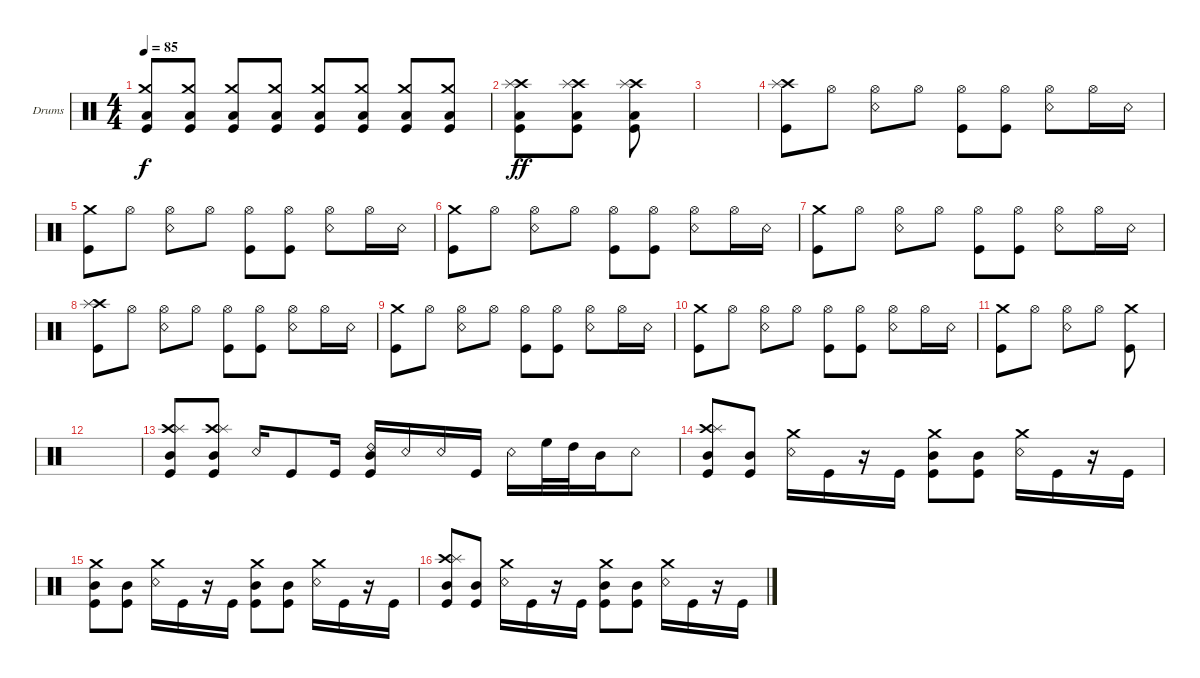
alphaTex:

\defaultSystemsLayout 4
\bracketExtendMode groupsimilarinstruments
\firstSystemTrackNameOrientation horizontal
\otherSystemsTrackNameOrientation horizontal
\track ("Drumkit" "Drums") {instrument percussion}
\staff {score}
\articulation defaults
\ts (4 4)
\tempo 85
\clef neutral
\scale
0.333333
\ks c
("Low Tom (hit)" "Crash medium (hit)" "Kick (hit)").8{dy f} ("Low Tom (hit)" "Crash medium (hit)" "Kick (hit)").8 ("Low Tom (hit)" "Crash medium (hit)" "Kick (hit)").8 ("Low Tom (hit)" "Crash medium (hit)" "Kick (hit)").8 ("Low Tom (hit)" "Crash medium (hit)" "Kick (hit)").8 ("Low Tom (hit)" "Crash medium (hit)" "Kick (hit)").8 ("Low Tom (hit)" "Crash medium (hit)" "Kick (hit)").8 ("Low Tom (hit)" "Crash medium (hit)" "Kick (hit)").8 |
\scale
0.333333 ("Low Tom (hit)" "Kick (hit)" "Crash high (hit)" "Splash (hit)").8{dy ff} ("Low Tom (hit)" "Kick (hit)" "Crash high (hit)" "Splash (hit)").8 ("Low Tom (hit)" "Kick (hit)" "Crash high (hit)" "Splash (hit)").8 |
\scale
0.333333 |
\scale
0.333333 ("Kick (hit)" "Crash high (hit)" "Splash (hit)").8 "Hi-Hat (open)".8 ("Snare (rim shot)" "Hi-Hat (open)").8 "Hi-Hat (open)".8 ("Hi-Hat (open)" "Kick (hit)").8 ("Hi-Hat (open)" "Kick (hit)").8 ("Hi-Hat (open)" "Snare (rim shot)").8 "Hi-Hat (open)".16 "Snare (rim shot)".16 |
\scale
0.333333 ("Kick (hit)" "Crash medium (hit)").8 "Hi-Hat (open)".8 ("Snare (rim shot)" "Hi-Hat (open)").8 "Hi-Hat (open)".8 ("Hi-Hat (open)" "Kick (hit)").8 ("Hi-Hat (open)" "Kick (hit)").8 ("Hi-Hat (open)" "Snare (rim shot)").8 "Hi-Hat (open)".16 "Snare (rim shot)".16 |
\scale
0.333333 ("Kick (hit)" "Crash medium (hit)").8 "Hi-Hat (open)".8 ("Snare (rim shot)" "Hi-Hat (open)").8 "Hi-Hat (open)".8 ("Hi-Hat (open)" "Kick (hit)").8 ("Hi-Hat (open)" "Kick (hit)").8 ("Hi-Hat (open)" "Snare (rim shot)").8 "Hi-Hat (open)".16 "Snare (rim shot)".16 |
\scale
0.333333 ("Kick (hit)" "Crash medium (hit)").8 "Hi-Hat (open)".8 ("Snare (rim shot)" "Hi-Hat (open)").8 "Hi-Hat (open)".8 ("Hi-Hat (open)" "Kick (hit)").8 ("Hi-Hat (open)" "Kick (hit)").8 ("Hi-Hat (open)" "Snare (rim shot)").8 "Hi-Hat (open)".16 "Snare (rim shot)".16 |
\scale
0.333333 ("Kick (hit)" "Crash high (hit)" "Splash (hit)").8 "Hi-Hat (open)".8 ("Snare (rim shot)" "Hi-Hat (open)").8 "Hi-Hat (open)".8 ("Hi-Hat (open)" "Kick (hit)").8 ("Hi-Hat (open)" "Kick (hit)").8 ("Hi-Hat (open)" "Snare (rim shot)").8 "Hi-Hat (open)".16 "Snare (rim shot)".16 |
\scale
0.333333 ("Kick (hit)" "Crash medium (hit)").8 "Hi-Hat (open)".8 ("Snare (rim shot)" "Hi-Hat (open)").8 "Hi-Hat (open)".8 ("Hi-Hat (open)" "Kick (hit)").8 ("Hi-Hat (open)" "Kick (hit)").8 ("Hi-Hat (open)" "Snare (rim shot)").8 "Hi-Hat (open)".16 "Snare (rim shot)".16 |
\scale
0.333333 ("Kick (hit)" "Crash medium (hit)").8 "Hi-Hat (open)".8 ("Snare (rim shot)" "Hi-Hat (open)").8 "Hi-Hat (open)".8 ("Hi-Hat (open)" "Kick (hit)").8 ("Hi-Hat (open)" "Kick (hit)").8 ("Hi-Hat (open)" "Snare (rim shot)").8 "Hi-Hat (open)".16 "Snare (rim shot)".16 |
\scale
0.333333 ("Kick (hit)" "Crash medium (hit)").8 "Hi-Hat (open)".8 ("Snare (rim shot)" "Hi-Hat (open)").8 "Hi-Hat (open)".8 ("Kick (hit)" "Crash medium (hit)").8 |
\scale
0.333333 |
\scale
0.333333 ("Crash high (hit)" "Splash (hit)" "Mid Tom (hit)" "Kick (hit)").8 ("Crash high (hit)" "Splash (hit)" "Mid Tom (hit)" "Kick (hit)").8 "Snare (rim shot)".16 "Kick (hit)".8 "Kick (hit)".16 ("Mid Tom (hit)" "Kick (hit)" "Ride (bell) 2").16 "Snare (rim shot)".16 "Snare (rim shot)".16 "Kick (hit)".16 "Snare (rim shot)".16 "High Floor Tom (hit)".32 "High Tom (hit)".32 "Mid Tom (hit)".16 "Snare (rim shot)".8 |
\scale
0.333333 ("Crash high (hit)" "Splash (hit)" "Mid Tom (hit)" "Kick (hit)").8 ("Mid Tom (hit)" "Kick (hit)").8 ("Snare (rim shot)" "Crash medium (hit)").16 "Kick (hit)".16 r.16 "Kick (hit)".16 ("Mid Tom (hit)" "Kick (hit)" "Crash medium (hit)").8 ("Mid Tom (hit)" "Kick (hit)").8 ("Snare (rim shot)" "Crash medium (hit)").16 "Kick (hit)".16 r.16 "Kick (hit)".16 |
\scale
0.333333 ("Mid Tom (hit)" "Kick (hit)" "Crash medium (hit)").8 ("Mid Tom (hit)" "Kick (hit)").8 ("Snare (rim shot)" "Crash medium (hit)").16 "Kick (hit)".16 r.16 "Kick (hit)".16 ("Mid Tom (hit)" "Kick (hit)" "Crash medium (hit)").8 ("Mid Tom (hit)" "Kick (hit)").8 ("Snare (rim shot)" "Crash medium (hit)").16 "Kick (hit)".16 r.16 "Kick (hit)".16 |
\scale
0.333333 ("Crash high (hit)" "Splash (hit)" "Mid Tom (hit)" "Kick (hit)").8 ("Mid Tom (hit)" "Kick (hit)").8 ("Snare (rim shot)" "Crash medium (hit)").16 "Kick (hit)".16 r.16 "Kick (hit)".16 ("Mid Tom (hit)" "Kick (hit)" "Crash medium (hit)").8 ("Mid Tom (hit)" "Kick (hit)").8 ("Snare (rim shot)" "Crash medium (hit)").16 "Kick (hit)".16 r.16 "Kick (hit)".16
